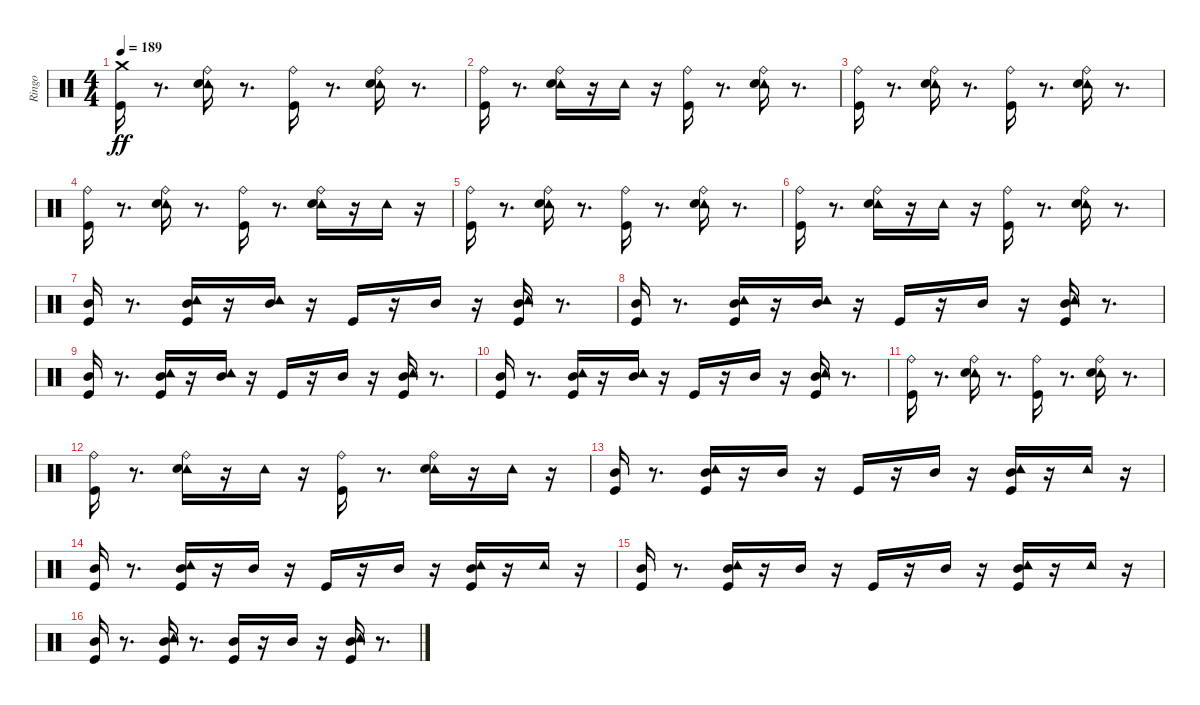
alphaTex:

\track ("Ringo" "Ringo") {instrument percussion}
\staff {score}
\articulation defaults
\ts (4 4)
\tempo 189
\clef neutral
\ks c
("Crash medium (hit)" "Kick (hit)").16{dy ff} r.8{d} ("Ride (bell)" "Tambourine (hit)" "Snare (hit) 2").16 r.8{d} ("Ride (bell)" "Kick (hit)").16 r.8{d} ("Ride (bell)" "Tambourine (hit)" "Snare (hit) 2").16 r.8{d} |
("Ride (bell)" "Kick (hit)").16 r.8{d} ("Tambourine (hit)" "Ride (bell)" "Snare (hit) 2").16 r.16 "Tambourine (hit)".16 r.16 ("Ride (bell)" "Kick (hit)").16 r.8{d} ("Tambourine (hit)" "Ride (bell)" "Snare (hit) 2").16 r.8{d} |
("Ride (bell)" "Kick (hit)").16 r.8{d} ("Tambourine (hit)" "Ride (bell)" "Snare (hit) 2").16 r.8{d} ("Ride (bell)" "Kick (hit)").16 r.8{d} ("Ride (bell)" "Tambourine (hit)" "Snare (hit) 2").16 r.8{d} |
("Ride (bell)" "Kick (hit)").16 r.8{d} ("Tambourine (hit)" "Ride (bell)" "Snare (hit) 2").16 r.8{d} ("Ride (bell)" "Kick (hit)").16 r.8{d} ("Ride (bell)" "Tambourine (hit)" "Snare (hit) 2").16 r.16 "Tambourine (hit)".16 r.16 |
("Ride (bell)" "Kick (hit)").16 r.8{d} ("Tambourine (hit)" "Ride (bell)" "Snare (hit) 2").16 r.8{d} ("Ride (bell)" "Kick (hit)").16 r.8{d} ("Ride (bell)" "Tambourine (hit)" "Snare (hit) 2").16 r.8{d} |
("Ride (bell)" "Kick (hit)").16 r.8{d} ("Tambourine (hit)" "Ride (bell)" "Snare (hit) 2").16 r.16 "Tambourine (hit)".16 r.16 ("Ride (bell)" "Kick (hit)").16 r.8{d} ("Ride (bell)" "Tambourine (hit)" "Snare (hit) 2").16 r.8{d} |
("Mid Tom (hit)" "Kick (hit)").16 r.8{d} ("Mid Tom (hit)" "Tambourine (hit)" "Kick (hit)").16 r.16 ("Mid Tom (hit)" "Tambourine (hit)").16 r.16 "Kick (hit)".16 r.16 "Mid Tom (hit)".16 r.16 ("Mid Tom (hit)" "Tambourine (hit)" "Kick (hit)").16 r.8{d} |
("Mid Tom (hit)" "Kick (hit)").16 r.8{d} ("Tambourine (hit)" "Mid Tom (hit)" "Kick (hit)").16 r.16 ("Mid Tom (hit)" "Tambourine (hit)").16 r.16 "Kick (hit)".16 r.16 "Mid Tom (hit)".16 r.16 ("Mid Tom (hit)" "Tambourine (hit)" "Kick (hit)").16 r.8{d} |
("Mid Tom (hit)" "Kick (hit)").16 r.8{d} ("Tambourine (hit)" "Mid Tom (hit)" "Kick (hit)").16 r.16 ("Mid Tom (hit)" "Tambourine (hit)").16 r.16 "Kick (hit)".16 r.16 "Mid Tom (hit)".16 r.16 ("Tambourine (hit)" "Mid Tom (hit)" "Kick (hit)").16 r.8{d} |
("Mid Tom (hit)" "Kick (hit)").16 r.8{d} ("Mid Tom (hit)" "Tambourine (hit)" "Kick (hit)").16 r.16 ("Tambourine (hit)" "Mid Tom (hit)").16 r.16 "Kick (hit)".16 r.16 "Mid Tom (hit)".16 r.16 ("Mid Tom (hit)" "Tambourine (hit)" "Kick (hit)").16 r.8{d} |
("Ride (bell)" "Kick (hit)").16 r.8{d} ("Ride (bell)" "Tambourine (hit)" "Snare (hit) 2").16 r.8{d} ("Ride (bell)" "Kick (hit)").16 r.8{d} ("Tambourine (hit)" "Ride (bell)" "Snare (hit) 2").16 r.8{d} |
("Ride (bell)" "Kick (hit)").16 r.8{d} ("Tambourine (hit)" "Ride (bell)" "Snare (hit) 2").16 r.16 "Tambourine (hit)".16 r.16 ("Ride (bell)" "Kick (hit)").16 r.8{d} ("Ride (bell)" "Tambourine (hit)" "Snare (hit) 2").16 r.16 "Tambourine (hit)".16 r.16 |
("Mid Tom (hit)" "Kick (hit)").16 r.8{d} ("Tambourine (hit)" "Mid Tom (hit)" "Kick (hit)").16 r.16 "Mid Tom (hit)".16 r.16 "Kick (hit)".16 r.16 "Mid Tom (hit)".16 r.16 ("Tambourine (hit)" "Mid Tom (hit)" "Kick (hit)").16 r.16 "Tambourine (hit)".16 r.16 |
("Mid Tom (hit)" "Kick (hit)").16 r.8{d} ("Tambourine (hit)" "Mid Tom (hit)" "Kick (hit)").16 r.16 "Mid Tom (hit)".16 r.16 "Kick (hit)".16 r.16 "Mid Tom (hit)".16 r.16 ("Tambourine (hit)" "Mid Tom (hit)" "Kick (hit)").16 r.16 "Tambourine (hit)".16 r.16 |
("Mid Tom (hit)" "Kick (hit)").16 r.8{d} ("Tambourine (hit)" "Mid Tom (hit)" "Kick (hit)").16 r.16 "Mid Tom (hit)".16 r.16 "Kick (hit)".16 r.16 "Mid Tom (hit)".16 r.16 ("Mid Tom (hit)" "Tambourine (hit)" "Kick (hit)").16 r.16 "Tambourine (hit)".16 r.16 |
("Mid Tom (hit)" "Kick (hit)").16 r.8{d} ("Tambourine (hit)" "Mid Tom (hit)" "Kick (hit)").16 r.8{d} ("Mid Tom (hit)" "Kick (hit)").16 r.16 "Mid Tom (hit)".16 r.16 ("Mid Tom (hit)" "Tambourine (hit)" "Kick (hit)").16 r.8{d}
